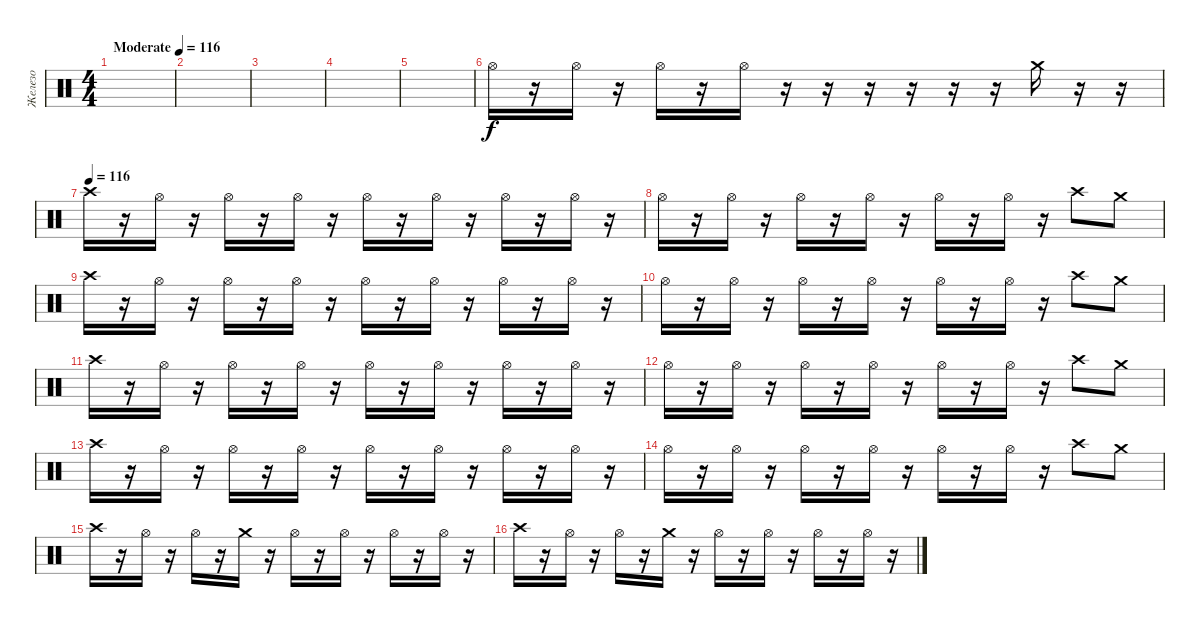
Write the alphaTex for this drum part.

\track ("Железо" "Железо") {instrument percussion}
\staff {score}
\articulation defaults
\ts (4 4)
\tempo (116 "Moderate")
\clef neutral
\ks c
|
|
|
|
|
"Hi-Hat (open)".16 r.16 "Hi-Hat (open)".16 r.16 "Hi-Hat (open)".16 r.16 "Hi-Hat (open)".16 r.16 r.16 r.16 r.16 r.16 r.16 "Crash medium (hit)".16 r.16 r.16 |
\tempo (116)
"Crash high (hit)".16 r.16 "Hi-Hat (open)".16 r.16 "Hi-Hat (open)".16 r.16 "Hi-Hat (open)".16 r.16 "Hi-Hat (open)".16 r.16 "Hi-Hat (open)".16 r.16 "Hi-Hat (open)".16 r.16 "Hi-Hat (open)".16 r.16 |
"Hi-Hat (open)".16 r.16 "Hi-Hat (open)".16 r.16 "Hi-Hat (open)".16 r.16 "Hi-Hat (open)".16 r.16 "Hi-Hat (open)".16 r.16 "Hi-Hat (open)".16 r.16 "Crash high (hit)".8 "Crash medium (hit)".8 |
"Crash high (hit)".16 r.16 "Hi-Hat (open)".16 r.16 "Hi-Hat (open)".16 r.16 "Hi-Hat (open)".16 r.16 "Hi-Hat (open)".16 r.16 "Hi-Hat (open)".16 r.16 "Hi-Hat (open)".16 r.16 "Hi-Hat (open)".16 r.16 |
"Hi-Hat (open)".16 r.16 "Hi-Hat (open)".16 r.16 "Hi-Hat (open)".16 r.16 "Hi-Hat (open)".16 r.16 "Hi-Hat (open)".16 r.16 "Hi-Hat (open)".16 r.16 "Crash high (hit)".8 "Crash medium (hit)".8 |
"Crash high (hit)".16 r.16 "Hi-Hat (open)".16 r.16 "Hi-Hat (open)".16 r.16 "Hi-Hat (open)".16 r.16 "Hi-Hat (open)".16 r.16 "Hi-Hat (open)".16 r.16 "Hi-Hat (open)".16 r.16 "Hi-Hat (open)".16 r.16 |
"Hi-Hat (open)".16 r.16 "Hi-Hat (open)".16 r.16 "Hi-Hat (open)".16 r.16 "Hi-Hat (open)".16 r.16 "Hi-Hat (open)".16 r.16 "Hi-Hat (open)".16 r.16 "Crash high (hit)".8 "Crash medium (hit)".8 |
"Crash high (hit)".16 r.16 "Hi-Hat (open)".16 r.16 "Hi-Hat (open)".16 r.16 "Hi-Hat (open)".16 r.16 "Hi-Hat (open)".16 r.16 "Hi-Hat (open)".16 r.16 "Hi-Hat (open)".16 r.16 "Hi-Hat (open)".16 r.16 |
"Hi-Hat (open)".16 r.16 "Hi-Hat (open)".16 r.16 "Hi-Hat (open)".16 r.16 "Hi-Hat (open)".16 r.16 "Hi-Hat (open)".16 r.16 "Hi-Hat (open)".16 r.16 "Crash high (hit)".8 "Crash medium (hit)".8 |
"Crash high (hit)".16 r.16 "Hi-Hat (open)".16 r.16 "Hi-Hat (open)".16 r.16 "Crash medium (hit)".16 r.16 "Hi-Hat (open)".16 r.16 "Hi-Hat (open)".16 r.16 "Hi-Hat (open)".16 r.16 "Hi-Hat (open)".16 r.16 |
"Crash high (hit)".16 r.16 "Hi-Hat (open)".16 r.16 "Hi-Hat (open)".16 r.16 "Crash medium (hit)".16 r.16 "Hi-Hat (open)".16 r.16 "Hi-Hat (open)".16 r.16 "Hi-Hat (open)".16 r.16 "Hi-Hat (open)".16 r.16
